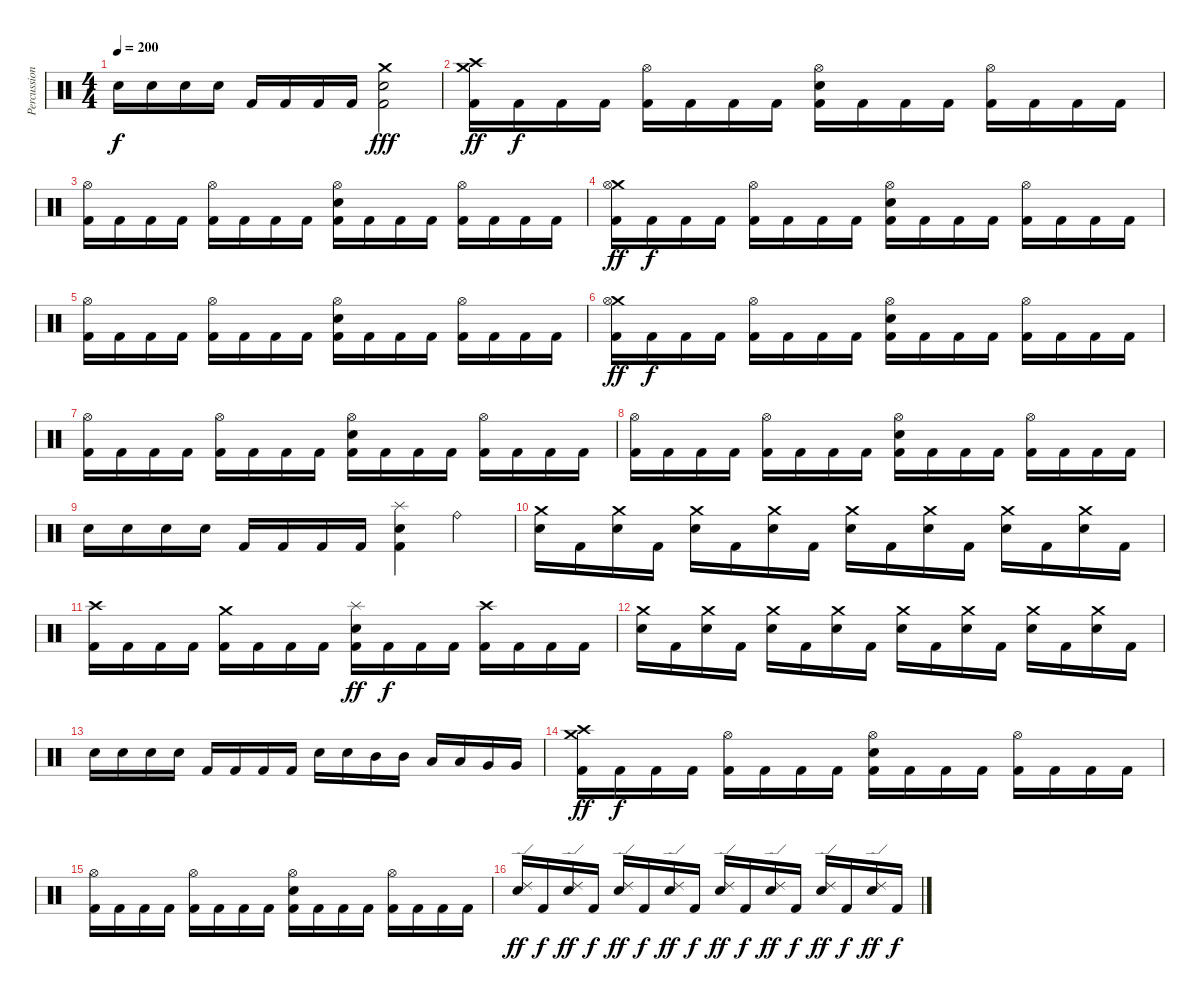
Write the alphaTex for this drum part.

\track ("Percussions" "Percussion") {instrument percussion}
\staff {score}
\articulation defaults
\ts (4 4)
\tempo 200
\clef neutral
\ks c "Electric Snare (hit)".16{dy f} "Electric Snare (hit)".16 "Electric Snare (hit)".16 "Electric Snare (hit)".16 "Kick (hit) 2".16 "Kick (hit) 2".16 "Kick (hit) 2".16 "Kick (hit) 2".16
("Crash medium (hit)" "Electric Snare (hit)" "Kick (hit) 2").2{dy fff} |
("Crash medium (hit)" "Crash high (hit)" "Kick (hit) 2").16{dy ff} "Kick (hit) 2".16{dy f} "Kick (hit) 2".16 "Kick (hit) 2".16 ("Hi-Hat (open)" "Kick (hit) 2").16 "Kick (hit) 2".16 "Kick (hit) 2".16 "Kick (hit) 2".16 ("Hi-Hat (open)" "Electric Snare (hit)" "Kick (hit) 2").16 "Kick (hit) 2".16 "Kick (hit) 2".16 "Kick (hit) 2".16 ("Hi-Hat (open)" "Kick (hit) 2").16 "Kick (hit) 2".16 "Kick (hit) 2".16 "Kick (hit) 2".16 |
("Hi-Hat (open)" "Kick (hit) 2").16 "Kick (hit) 2".16 "Kick (hit) 2".16 "Kick (hit) 2".16 ("Hi-Hat (open)" "Kick (hit) 2").16 "Kick (hit) 2".16 "Kick (hit) 2".16 "Kick (hit) 2".16 ("Hi-Hat (open)" "Electric Snare (hit)" "Kick (hit) 2").16 "Kick (hit) 2".16 "Kick (hit) 2".16 "Kick (hit) 2".16 ("Hi-Hat (open)" "Kick (hit) 2").16 "Kick (hit) 2".16 "Kick (hit) 2".16 "Kick (hit) 2".16 |
("Crash medium (hit)" "Hi-Hat (open)" "Kick (hit) 2").16{dy ff} "Kick (hit) 2".16{dy f} "Kick (hit) 2".16 "Kick (hit) 2".16 ("Hi-Hat (open)" "Kick (hit) 2").16 "Kick (hit) 2".16 "Kick (hit) 2".16 "Kick (hit) 2".16 ("Hi-Hat (open)" "Electric Snare (hit)" "Kick (hit) 2").16 "Kick (hit) 2".16 "Kick (hit) 2".16 "Kick (hit) 2".16 ("Hi-Hat (open)" "Kick (hit) 2").16 "Kick (hit) 2".16 "Kick (hit) 2".16 "Kick (hit) 2".16 |
("Hi-Hat (open)" "Kick (hit) 2").16 "Kick (hit) 2".16 "Kick (hit) 2".16 "Kick (hit) 2".16 ("Hi-Hat (open)" "Kick (hit) 2").16 "Kick (hit) 2".16 "Kick (hit) 2".16 "Kick (hit) 2".16 ("Hi-Hat (open)" "Electric Snare (hit)" "Kick (hit) 2").16 "Kick (hit) 2".16 "Kick (hit) 2".16 "Kick (hit) 2".16 ("Hi-Hat (open)" "Kick (hit) 2").16 "Kick (hit) 2".16 "Kick (hit) 2".16 "Kick (hit) 2".16 |
("Crash medium (hit)" "Hi-Hat (open)" "Kick (hit) 2").16{dy ff} "Kick (hit) 2".16{dy f} "Kick (hit) 2".16 "Kick (hit) 2".16 ("Hi-Hat (open)" "Kick (hit) 2").16 "Kick (hit) 2".16 "Kick (hit) 2".16 "Kick (hit) 2".16 ("Hi-Hat (open)" "Electric Snare (hit)" "Kick (hit) 2").16 "Kick (hit) 2".16 "Kick (hit) 2".16 "Kick (hit) 2".16 ("Hi-Hat (open)" "Kick (hit) 2").16 "Kick (hit) 2".16 "Kick (hit) 2".16 "Kick (hit) 2".16 |
("Hi-Hat (open)" "Kick (hit) 2").16 "Kick (hit) 2".16 "Kick (hit) 2".16 "Kick (hit) 2".16 ("Hi-Hat (open)" "Kick (hit) 2").16 "Kick (hit) 2".16 "Kick (hit) 2".16 "Kick (hit) 2".16 ("Hi-Hat (open)" "Electric Snare (hit)" "Kick (hit) 2").16 "Kick (hit) 2".16 "Kick (hit) 2".16 "Kick (hit) 2".16 ("Hi-Hat (open)" "Kick (hit) 2").16 "Kick (hit) 2".16 "Kick (hit) 2".16 "Kick (hit) 2".16 |
("Hi-Hat (open)" "Kick (hit) 2").16 "Kick (hit) 2".16 "Kick (hit) 2".16 "Kick (hit) 2".16 ("Hi-Hat (open)" "Kick (hit) 2").16 "Kick (hit) 2".16 "Kick (hit) 2".16 "Kick (hit) 2".16 ("Hi-Hat (open)" "Electric Snare (hit)" "Kick (hit) 2").16 "Kick (hit) 2".16 "Kick (hit) 2".16 "Kick (hit) 2".16 ("Hi-Hat (open)" "Kick (hit) 2").16 "Kick (hit) 2".16 "Kick (hit) 2".16 "Kick (hit) 2".16 |
"Electric Snare (hit)".16 "Electric Snare (hit)".16 "Electric Snare (hit)".16 "Electric Snare (hit)".16 "Kick (hit) 2".16 "Kick (hit) 2".16 "Kick (hit) 2".16 "Kick (hit) 2".16 ("Splash (hit)" "Electric Snare (hit)" "Kick (hit) 2").4 "Ride (bell)".4 |
("Crash medium (hit)" "Electric Snare (hit)").16 "Kick (hit) 2".16 ("Crash medium (hit)" "Electric Snare (hit)").16 "Kick (hit) 2".16 ("Crash medium (hit)" "Electric Snare (hit)").16 "Kick (hit) 2".16 ("Crash medium (hit)" "Electric Snare (hit)").16 "Kick (hit) 2".16 ("Crash medium (hit)" "Electric Snare (hit)").16 "Kick (hit) 2".16 ("Crash medium (hit)" "Electric Snare (hit)").16 "Kick (hit) 2".16 ("Crash medium (hit)" "Electric Snare (hit)").16 "Kick (hit) 2".16 ("Crash medium (hit)" "Electric Snare (hit)").16 "Kick (hit) 2".16 |
("Crash high (hit)" "Kick (hit) 2").16 "Kick (hit) 2".16 "Kick (hit) 2".16 "Kick (hit) 2".16 ("Crash medium (hit)" "Kick (hit) 2").16 "Kick (hit) 2".16 "Kick (hit) 2".16 "Kick (hit) 2".16 ("Splash (hit)" "Electric Snare (hit)" "Kick (hit) 2").16{dy ff} "Kick (hit) 2".16{dy f} "Kick (hit) 2".16 "Kick (hit) 2".16 ("Crash high (hit)" "Kick (hit) 2").16 "Kick (hit) 2".16 "Kick (hit) 2".16 "Kick (hit) 2".16 |
("Crash medium (hit)" "Electric Snare (hit)").16 "Kick (hit) 2".16 ("Crash medium (hit)" "Electric Snare (hit)").16 "Kick (hit) 2".16 ("Crash medium (hit)" "Electric Snare (hit)").16 "Kick (hit) 2".16 ("Crash medium (hit)" "Electric Snare (hit)").16 "Kick (hit) 2".16 ("Crash medium (hit)" "Electric Snare (hit)").16 "Kick (hit) 2".16 ("Crash medium (hit)" "Electric Snare (hit)").16 "Kick (hit) 2".16 ("Crash medium (hit)" "Electric Snare (hit)").16 "Kick (hit) 2".16 ("Crash medium (hit)" "Electric Snare (hit)").16 "Kick (hit) 2".16 |
"Electric Snare (hit)".16 "Electric Snare (hit)".16 "Electric Snare (hit)".16 "Electric Snare (hit)".16 "Kick (hit) 2".16 "Kick (hit) 2".16 "Kick (hit) 2".16 "Kick (hit) 2".16 "Electric Snare (hit)".16 "Electric Snare (hit)".16 "Mid Tom (hit)".16 "Mid Tom (hit)".16 "Low Tom (hit)".16 "Low Tom (hit)".16 "Very Low Tom (hit)".16 "Very Low Tom (hit)".16 |
("Crash medium (hit)" "Crash high (hit)" "Kick (hit) 2").16{dy ff} "Kick (hit) 2".16{dy f} "Kick (hit) 2".16 "Kick (hit) 2".16 ("Hi-Hat (open)" "Kick (hit) 2").16 "Kick (hit) 2".16 "Kick (hit) 2".16 "Kick (hit) 2".16 ("Hi-Hat (open)" "Electric Snare (hit)" "Kick (hit) 2").16 "Kick (hit) 2".16 "Kick (hit) 2".16 "Kick (hit) 2".16 ("Hi-Hat (open)" "Kick (hit) 2").16 "Kick (hit) 2".16 "Kick (hit) 2".16 "Kick (hit) 2".16 |
("Hi-Hat (open)" "Kick (hit) 2").16 "Kick (hit) 2".16 "Kick (hit) 2".16 "Kick (hit) 2".16 ("Hi-Hat (open)" "Kick (hit) 2").16 "Kick (hit) 2".16 "Kick (hit) 2".16 "Kick (hit) 2".16 ("Hi-Hat (open)" "Electric Snare (hit)" "Kick (hit) 2").16 "Kick (hit) 2".16 "Kick (hit) 2".16 "Kick (hit) 2".16 ("Hi-Hat (open)" "Kick (hit) 2").16 "Kick (hit) 2".16 "Kick (hit) 2".16 "Kick (hit) 2".16 |
("Ride (edge) 2" "Electric Snare (hit)").16{dy ff} "Kick (hit) 2".16{dy f} ("Ride (edge) 2" "Electric Snare (hit)").16{dy ff} "Kick (hit) 2".16{dy f} ("Ride (edge) 2" "Electric Snare (hit)").16{dy ff} "Kick (hit) 2".16{dy f} ("Ride (edge) 2" "Electric Snare (hit)").16{dy ff} "Kick (hit) 2".16{dy f} ("Ride (edge) 2" "Electric Snare (hit)").16{dy ff} "Kick (hit) 2".16{dy f} ("Ride (edge) 2" "Electric Snare (hit)").16{dy ff} "Kick (hit) 2".16{dy f} ("Ride (edge) 2" "Electric Snare (hit)").16{dy ff} "Kick (hit) 2".16{dy f} ("Ride (edge) 2" "Electric Snare (hit)").16{dy ff} "Kick (hit) 2".16{dy f}
